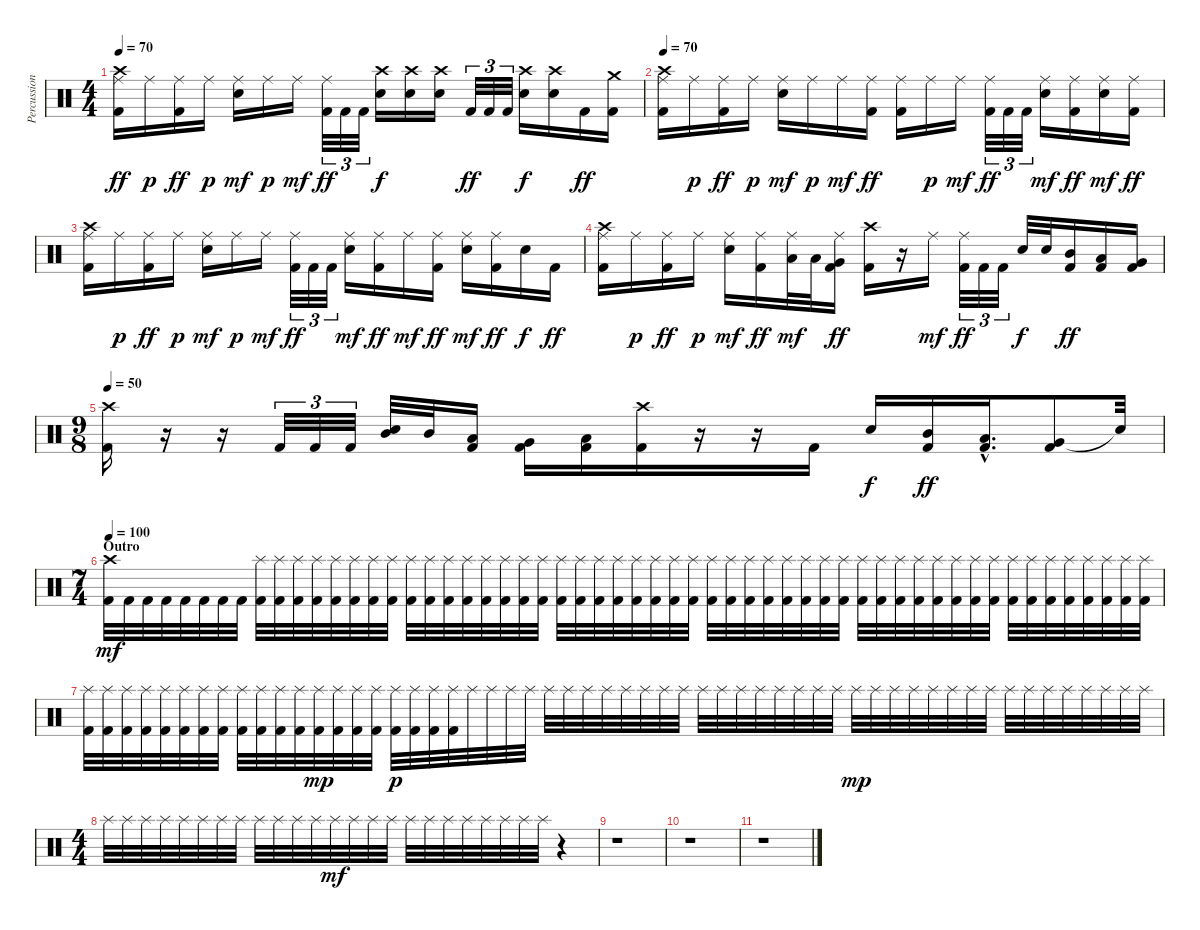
\track ("Percussion" "Percussion") {instrument percussion}
\staff {score}
\articulation defaults
\ts (4 4)
\tempo 70
\clef neutral
\ks c
("Crash high (hit)" "Ride (middle)" "Kick (hit) 2").16{dy ff} "Ride (middle)".16{dy p} ("Ride (middle)" "Kick (hit) 2").16{dy ff} "Ride (middle)".16{dy p} ("Ride (middle)" "Snare (hit) 2").16{dy mf} "Ride (middle)".16{dy p} "Ride (middle)".16{dy mf} ("Ride (middle)" "Kick (hit) 2").32{tu (3 2) dy ff} "Kick (hit) 2".32{tu (3 2)} "Kick (hit) 2".32{tu (3 2)} ("Crash high (hit)" "Snare (hit) 2").16{dy f} ("Crash high (hit)" "Snare (hit) 2").16 ("Crash high (hit)" "Snare (hit) 2").16 "Kick (hit) 2".32{tu (3 2) dy ff} "Kick (hit) 2".32{tu (3 2)} "Kick (hit) 2".32{tu (3 2)} ("Crash high (hit)" "Snare (hit) 2").16{dy f} ("Crash high (hit)" "Snare (hit) 2").16 "Kick (hit) 2".16{dy ff} ("Crash medium (hit)" "Kick (hit) 2").16 |
\tempo 70
("Crash high (hit)" "Ride (middle)" "Kick (hit) 2").16 "Ride (middle)".16{dy p} ("Ride (middle)" "Kick (hit) 2").16{dy ff} "Ride (middle)".16{dy p} ("Ride (middle)" "Snare (hit) 2").16{dy mf} "Ride (middle)".16{dy p} "Ride (middle)".16{dy mf} ("Ride (middle)" "Kick (hit) 2").16{dy ff} ("Ride (middle)" "Kick (hit) 2").16 "Ride (middle)".16{dy p} "Ride (middle)".16{dy mf} ("Ride (middle)" "Kick (hit) 2").32{tu (3 2) dy ff} "Kick (hit) 2".32{tu (3 2)} "Kick (hit) 2".32{tu (3 2)} ("Ride (middle)" "Snare (hit) 2").16{dy mf} ("Ride (middle)" "Kick (hit) 2").16{dy ff} ("Ride (middle)" "Snare (hit) 2").16{dy mf} ("Ride (middle)" "Kick (hit) 2").16{dy ff} |
("Crash high (hit)" "Ride (middle)" "Kick (hit) 2").16 "Ride (middle)".16{dy p} ("Ride (middle)" "Kick (hit) 2").16{dy ff} "Ride (middle)".16{dy p} ("Ride (middle)" "Snare (hit) 2").16{dy mf} "Ride (middle)".16{dy p} "Ride (middle)".16{dy mf} ("Ride (middle)" "Kick (hit) 2").32{tu (3 2) dy ff} "Kick (hit) 2".32{tu (3 2)} "Kick (hit) 2".32{tu (3 2)} ("Ride (middle)" "Snare (hit) 2").16{dy mf} ("Ride (middle)" "Kick (hit) 2").16{dy ff} "Ride (middle)".16{dy mf} ("Ride (middle)" "Kick (hit) 2").16{dy ff} ("Ride (middle)" "Snare (hit) 2").16{dy mf} ("Ride (middle)" "Kick (hit) 2").16{dy ff} "Snare (hit) 2".16{dy f} "Kick (hit) 2".16{dy ff} |
("Crash high (hit)" "Ride (middle)" "Kick (hit) 2").16 "Ride (middle)".16{dy p} ("Ride (middle)" "Kick (hit) 2").16{dy ff} "Ride (middle)".16{dy p} ("Ride (middle)" "Snare (hit) 2").16{dy mf} ("Ride (middle)" "Kick (hit) 2").16{dy ff} ("Ride (middle)" "Low Tom (hit)").32{dy mf} "Low Tom (hit)".32 ("Ride (middle)" "Very Low Tom (hit)" "Kick (hit) 2").16{dy ff} ("Crash high (hit)" "Kick (hit) 2").16 r.16 "Ride (middle)".16{dy mf} ("Ride (middle)" "Kick (hit) 2").32{tu (3 2) dy ff} "Kick (hit) 2".32{tu (3 2)} "Kick (hit) 2".32{tu (3 2)} "Snare (hit) 2".32{dy f} "Snare (hit) 2".32 ("Mid Tom (hit)" "Kick (hit) 2").16{dy ff} ("Low Tom (hit)" "Kick (hit) 2").16 ("Very Low Tom (hit)" "Kick (hit) 2").16 |
\ts (9 8)
\tempo 50
("Crash high (hit)" "Kick (hit) 2").16 r.16 r.16 "Kick (hit) 2".32{tu (3 2)} "Kick (hit) 2".32{tu (3 2)} "Kick (hit) 2".32{tu (3 2)} ("Mid Tom (hit)" "Snare (hit) 2").32 "Mid Tom (hit)".32 ("Low Tom (hit)" "Kick (hit) 2").16 ("Very Low Tom (hit)" "Kick (hit) 2").16 ("Low Floor Tom (hit)" "Kick (hit) 2").16 ("Crash high (hit)" "Kick (hit) 2").16 r.16 r.16 "Kick (hit) 2".16 "Snare (hit) 2".16{dy f} ("Mid Tom (hit)" "Kick (hit) 2").16{dy ff} ("Low Tom (hit)"{hac} "Kick (hit) 2"{hac}).16{d} ("Very Low Tom (hit)" "Kick (hit) 2").8 "Snare (hit)"{t}.32 |
\ts (7 4)
\section ("" "Outro")
\tempo 100
("Crash high (hit)" "Kick (hit) 2").32{dy mf} "Kick (hit) 2".32 "Kick (hit) 2".32 "Kick (hit) 2".32 "Kick (hit) 2".32 "Kick (hit) 2".32 "Kick (hit) 2".32 "Kick (hit) 2".32 ("Splash (hit)" "Kick (hit) 2").32 ("Splash (hit)" "Kick (hit) 2").32 ("Splash (hit)" "Kick (hit) 2").32 ("Splash (hit)" "Kick (hit) 2").32 ("Splash (hit)" "Kick (hit) 2").32 ("Splash (hit)" "Kick (hit) 2").32 ("Splash (hit)" "Kick (hit) 2").32 ("Splash (hit)" "Kick (hit) 2").32 ("Splash (hit)" "Kick (hit) 2").32 ("Splash (hit)" "Kick (hit) 2").32 ("Splash (hit)" "Kick (hit) 2").32 ("Splash (hit)" "Kick (hit) 2").32 ("Splash (hit)" "Kick (hit) 2").32 ("Splash (hit)" "Kick (hit) 2").32 ("Splash (hit)" "Kick (hit) 2").32 ("Splash (hit)" "Kick (hit) 2").32 ("Splash (hit)" "Kick (hit) 2").32 ("Splash (hit)" "Kick (hit) 2").32 ("Splash (hit)" "Kick (hit) 2").32 ("Splash (hit)" "Kick (hit) 2").32 ("Splash (hit)" "Kick (hit) 2").32 ("Splash (hit)" "Kick (hit) 2").32 ("Splash (hit)" "Kick (hit) 2").32 ("Splash (hit)" "Kick (hit) 2").32 ("Splash (hit)" "Kick (hit) 2").32 ("Splash (hit)" "Kick (hit) 2").32 ("Splash (hit)" "Kick (hit) 2").32 ("Splash (hit)" "Kick (hit) 2").32 ("Splash (hit)" "Kick (hit) 2").32 ("Splash (hit)" "Kick (hit) 2").32 ("Splash (hit)" "Kick (hit) 2").32 ("Splash (hit)" "Kick (hit) 2").32 ("Splash (hit)" "Kick (hit) 2").32 ("Splash (hit)" "Kick (hit) 2").32 ("Splash (hit)" "Kick (hit) 2").32 ("Splash (hit)" "Kick (hit) 2").32 ("Splash (hit)" "Kick (hit) 2").32 ("Splash (hit)" "Kick (hit) 2").32 ("Splash (hit)" "Kick (hit) 2").32 ("Splash (hit)" "Kick (hit) 2").32 ("Splash (hit)" "Kick (hit) 2").32 ("Splash (hit)" "Kick (hit) 2").32 ("Splash (hit)" "Kick (hit) 2").32 ("Splash (hit)" "Kick (hit) 2").32 ("Splash (hit)" "Kick (hit) 2").32 ("Splash (hit)" "Kick (hit) 2").32 ("Splash (hit)" "Kick (hit) 2").32 ("Splash (hit)" "Kick (hit) 2").32 |
("Splash (hit)" "Kick (hit) 2").32 ("Splash (hit)" "Kick (hit) 2").32 ("Splash (hit)" "Kick (hit) 2").32 ("Splash (hit)" "Kick (hit) 2").32 ("Splash (hit)" "Kick (hit) 2").32 ("Splash (hit)" "Kick (hit) 2").32 ("Splash (hit)" "Kick (hit) 2").32 ("Splash (hit)" "Kick (hit) 2").32 ("Splash (hit)" "Kick (hit) 2").32 ("Splash (hit)" "Kick (hit) 2").32 ("Splash (hit)" "Kick (hit) 2").32 ("Splash (hit)" "Kick (hit) 2").32 ("Splash (hit)" "Kick (hit) 2").32{dy mp} ("Splash (hit)" "Kick (hit) 2").32 ("Splash (hit)" "Kick (hit) 2").32 ("Splash (hit)" "Kick (hit) 2").32 ("Splash (hit)" "Kick (hit) 2").32{dy p} ("Splash (hit)" "Kick (hit) 2").32 ("Splash (hit)" "Kick (hit) 2").32 ("Splash (hit)" "Kick (hit) 2").32 "Splash (hit)".32 "Splash (hit)".32 "Splash (hit)".32 "Splash (hit)".32 "Splash (hit)".32 "Splash (hit)".32 "Splash (hit)".32 "Splash (hit)".32 "Splash (hit)".32 "Splash (hit)".32 "Splash (hit)".32 "Splash (hit)".32 "Splash (hit)".32 "Splash (hit)".32 "Splash (hit)".32 "Splash (hit)".32 "Splash (hit)".32 "Splash (hit)".32 "Splash (hit)".32 "Splash (hit)".32 "Splash (hit)".32{dy mp} "Splash (hit)".32 "Splash (hit)".32 "Splash (hit)".32 "Splash (hit)".32 "Splash (hit)".32 "Splash (hit)".32 "Splash (hit)".32 "Splash (hit)".32 "Splash (hit)".32 "Splash (hit)".32 "Splash (hit)".32 "Splash (hit)".32 "Splash (hit)".32 "Splash (hit)".32 "Splash (hit)".32 |
\ts (4 4)
"Splash (hit)".32 "Splash (hit)".32 "Splash (hit)".32 "Splash (hit)".32 "Splash (hit)".32 "Splash (hit)".32 "Splash (hit)".32 "Splash (hit)".32 "Splash (hit)".32 "Splash (hit)".32 "Splash (hit)".32 "Splash (hit)".32 "Splash (hit)".32{dy mf} "Splash (hit)".32 "Splash (hit)".32 "Splash (hit)".32 "Splash (hit)".32 "Splash (hit)".32 "Splash (hit)".32 "Splash (hit)".32 "Splash (hit)".32 "Splash (hit)".32 "Splash (hit)".32 "Splash (hit)".32 r.4 |
r.1 |
r.1 |
r.1
